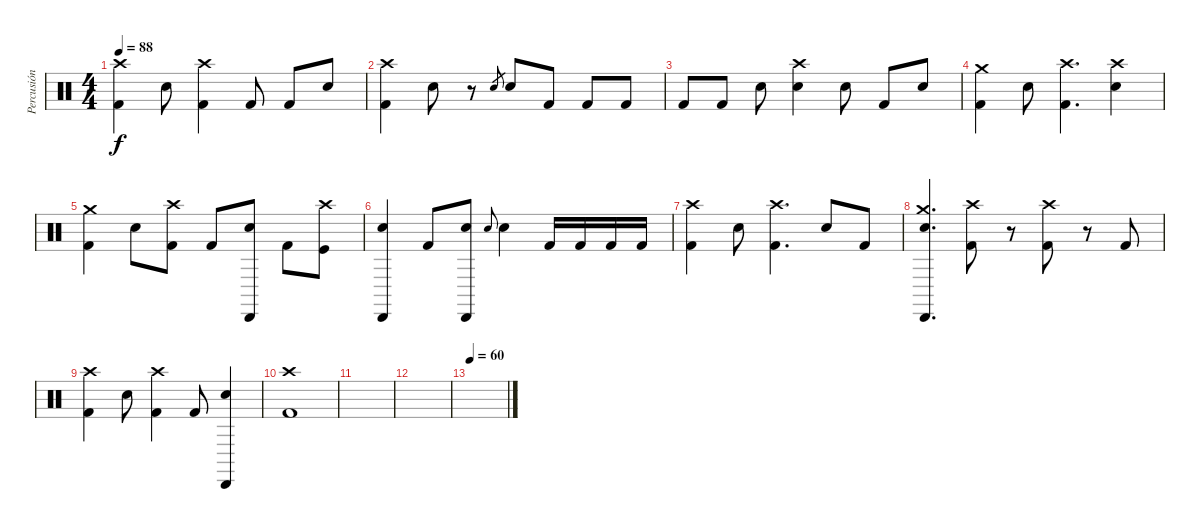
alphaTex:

\track ("Percusión" "Percusión") {instrument percussion}
\staff {score}
\articulation defaults
\ts (4 4)
\tempo 88
\clef neutral
\ks c
("Crash high (hit)" "Kick (hit) 2").4{dy f} "Snare (hit) 2".8 ("Crash high (hit)" "Kick (hit) 2").4 "Kick (hit) 2".8 "Kick (hit) 2".8 "Snare (hit) 2".8 |
("Crash high (hit)" "Kick (hit) 2").4 "Snare (hit) 2".8 r.8 "Snare (hit) 2".8{gr} "Snare (hit) 2".8 "Kick (hit) 2".8 "Kick (hit) 2".8 "Kick (hit) 2".8 |
"Kick (hit) 2".8 "Kick (hit) 2".8 "Snare (hit) 2".8 ("Crash high (hit)" "Snare (hit) 2").4 "Snare (hit) 2".8 "Kick (hit) 2".8 "Snare (hit) 2".8 |
("Crash medium (hit)" "Kick (hit) 2").4 "Snare (hit) 2".8 ("Crash high (hit)" "Kick (hit) 2").4{d} ("Crash high (hit)" "Snare (hit) 2").4 |
("Crash medium (hit)" "Kick (hit) 2").4 "Snare (hit) 2".8 ("Crash high (hit)" "Kick (hit) 2").8 "Kick (hit) 2".8 ("Cabasa (hit)" "Snare (hit) 2").8 "Kick (hit) 2".8 ("Crash high (hit)" "Kick (hit)").8 |
("Snare (hit) 2" "Cabasa (hit)").4 "Kick (hit) 2".8 ("Cabasa (hit)" "Snare (hit) 2").8 "Snare (hit) 2".8{gr onbeat} "Snare (hit) 2".4 "Kick (hit) 2".16 "Kick (hit) 2".16 "Kick (hit) 2".16 "Kick (hit) 2".16 |
("Crash high (hit)" "Kick (hit) 2").4 "Snare (hit) 2".8 ("Crash high (hit)" "Kick (hit) 2").4{d} "Snare (hit) 2".8 "Kick (hit) 2".8 |
("Crash medium (hit)" "Cabasa (hit)" "Snare (hit) 2").4{d} ("Crash high (hit)" "Kick (hit) 2").8 r.8 ("Crash high (hit)" "Kick (hit) 2").8 r.8 "Kick (hit) 2".8 |
("Crash high (hit)" "Kick (hit) 2").4 "Snare (hit) 2".8 ("Crash high (hit)" "Kick (hit) 2").4 "Kick (hit) 2".8 ("Snare (hit) 2" "Cabasa (hit)").4 |
("Crash high (hit)" "Kick (hit) 2").1 |
|
|
\tempo 60
